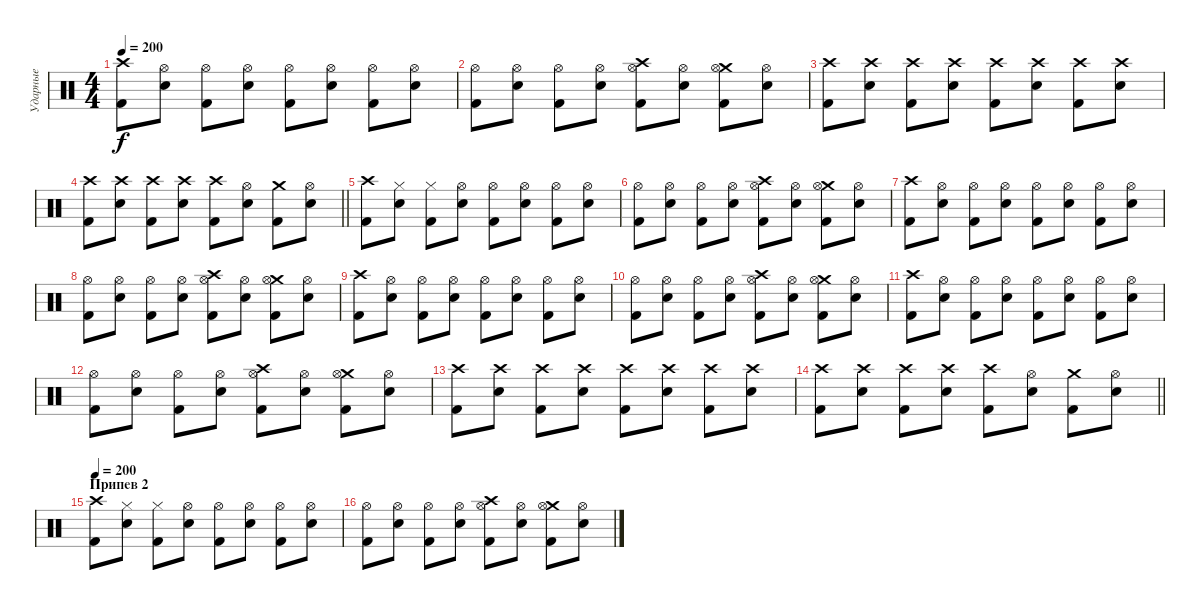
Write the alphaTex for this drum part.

\track ("Ударные" "Ударные") {instrument percussion}
\staff {score}
\articulation defaults
\ts (4 4)
\tempo 200
\clef neutral
\ks c
("Crash high (hit)" "Kick (hit) 2").8{dy f} ("Hi-Hat (open)" "Snare (hit) 2").8 ("Hi-Hat (open)" "Kick (hit) 2").8 ("Hi-Hat (open)" "Snare (hit) 2").8 ("Hi-Hat (open)" "Kick (hit) 2").8 ("Hi-Hat (open)" "Snare (hit) 2").8 ("Hi-Hat (open)" "Kick (hit) 2").8 ("Hi-Hat (open)" "Snare (hit) 2").8 |
("Hi-Hat (open)" "Kick (hit) 2").8 ("Hi-Hat (open)" "Snare (hit) 2").8 ("Hi-Hat (open)" "Kick (hit) 2").8 ("Hi-Hat (open)" "Snare (hit) 2").8 ("Crash high (hit)" "Hi-Hat (open)" "Kick (hit) 2").8 ("Hi-Hat (open)" "Snare (hit) 2").8 ("Crash medium (hit)" "Hi-Hat (open)" "Kick (hit) 2").8 ("Hi-Hat (open)" "Snare (hit) 2").8 |
("Crash high (hit)" "Kick (hit) 2").8 ("Crash high (hit)" "Snare (hit) 2").8 ("Crash high (hit)" "Kick (hit) 2").8 ("Crash high (hit)" "Snare (hit) 2").8 ("Crash high (hit)" "Kick (hit) 2").8 ("Crash high (hit)" "Snare (hit) 2").8 ("Crash high (hit)" "Kick (hit) 2").8 ("Crash high (hit)" "Snare (hit) 2").8 |
\barLineRight lightlight
("Crash high (hit)" "Kick (hit) 2").8 ("Crash high (hit)" "Snare (hit) 2").8 ("Crash high (hit)" "Kick (hit) 2").8 ("Crash high (hit)" "Snare (hit) 2").8 ("Crash high (hit)" "Kick (hit) 2").8 ("Hi-Hat (open)" "Snare (hit) 2").8 ("Crash medium (hit)" "Kick (hit) 2").8 ("Hi-Hat (open)" "Snare (hit) 2").8 |
("Crash high (hit)" "Kick (hit) 2").8 ("Hi-Hat (closed)" "Snare (hit) 2").8 ("Hi-Hat (closed)" "Kick (hit) 2").8 ("Hi-Hat (open)" "Snare (hit) 2").8 ("Hi-Hat (open)" "Kick (hit) 2").8 ("Hi-Hat (open)" "Snare (hit) 2").8 ("Hi-Hat (open)" "Kick (hit) 2").8 ("Hi-Hat (open)" "Snare (hit) 2").8 |
("Hi-Hat (open)" "Kick (hit) 2").8 ("Hi-Hat (open)" "Snare (hit) 2").8 ("Hi-Hat (open)" "Kick (hit) 2").8 ("Hi-Hat (open)" "Snare (hit) 2").8 ("Crash high (hit)" "Hi-Hat (open)" "Kick (hit) 2").8 ("Hi-Hat (open)" "Snare (hit) 2").8 ("Crash medium (hit)" "Hi-Hat (open)" "Kick (hit) 2").8 ("Hi-Hat (open)" "Snare (hit) 2").8 |
("Crash high (hit)" "Kick (hit) 2").8 ("Hi-Hat (open)" "Snare (hit) 2").8 ("Hi-Hat (open)" "Kick (hit) 2").8 ("Hi-Hat (open)" "Snare (hit) 2").8 ("Hi-Hat (open)" "Kick (hit) 2").8 ("Hi-Hat (open)" "Snare (hit) 2").8 ("Hi-Hat (open)" "Kick (hit) 2").8 ("Hi-Hat (open)" "Snare (hit) 2").8 |
("Hi-Hat (open)" "Kick (hit) 2").8 ("Hi-Hat (open)" "Snare (hit) 2").8 ("Hi-Hat (open)" "Kick (hit) 2").8 ("Hi-Hat (open)" "Snare (hit) 2").8 ("Crash high (hit)" "Hi-Hat (open)" "Kick (hit) 2").8 ("Hi-Hat (open)" "Snare (hit) 2").8 ("Crash medium (hit)" "Hi-Hat (open)" "Kick (hit) 2").8 ("Hi-Hat (open)" "Snare (hit) 2").8 |
("Crash high (hit)" "Kick (hit) 2").8 ("Hi-Hat (open)" "Snare (hit) 2").8 ("Hi-Hat (open)" "Kick (hit) 2").8 ("Hi-Hat (open)" "Snare (hit) 2").8 ("Hi-Hat (open)" "Kick (hit) 2").8 ("Hi-Hat (open)" "Snare (hit) 2").8 ("Hi-Hat (open)" "Kick (hit) 2").8 ("Hi-Hat (open)" "Snare (hit) 2").8 |
("Hi-Hat (open)" "Kick (hit) 2").8 ("Hi-Hat (open)" "Snare (hit) 2").8 ("Hi-Hat (open)" "Kick (hit) 2").8 ("Hi-Hat (open)" "Snare (hit) 2").8 ("Crash high (hit)" "Hi-Hat (open)" "Kick (hit) 2").8 ("Hi-Hat (open)" "Snare (hit) 2").8 ("Crash medium (hit)" "Hi-Hat (open)" "Kick (hit) 2").8 ("Hi-Hat (open)" "Snare (hit) 2").8 |
("Crash high (hit)" "Kick (hit) 2").8 ("Hi-Hat (open)" "Snare (hit) 2").8 ("Hi-Hat (open)" "Kick (hit) 2").8 ("Hi-Hat (open)" "Snare (hit) 2").8 ("Hi-Hat (open)" "Kick (hit) 2").8 ("Hi-Hat (open)" "Snare (hit) 2").8 ("Hi-Hat (open)" "Kick (hit) 2").8 ("Hi-Hat (open)" "Snare (hit) 2").8 |
("Hi-Hat (open)" "Kick (hit) 2").8 ("Hi-Hat (open)" "Snare (hit) 2").8 ("Hi-Hat (open)" "Kick (hit) 2").8 ("Hi-Hat (open)" "Snare (hit) 2").8 ("Crash high (hit)" "Hi-Hat (open)" "Kick (hit) 2").8 ("Hi-Hat (open)" "Snare (hit) 2").8 ("Crash medium (hit)" "Hi-Hat (open)" "Kick (hit) 2").8 ("Hi-Hat (open)" "Snare (hit) 2").8 |
("Crash high (hit)" "Kick (hit) 2").8 ("Crash high (hit)" "Snare (hit) 2").8 ("Crash high (hit)" "Kick (hit) 2").8 ("Crash high (hit)" "Snare (hit) 2").8 ("Crash high (hit)" "Kick (hit) 2").8 ("Crash high (hit)" "Snare (hit) 2").8 ("Crash high (hit)" "Kick (hit) 2").8 ("Crash high (hit)" "Snare (hit) 2").8 |
\barLineRight lightlight
("Crash high (hit)" "Kick (hit) 2").8 ("Crash high (hit)" "Snare (hit) 2").8 ("Crash high (hit)" "Kick (hit) 2").8 ("Crash high (hit)" "Snare (hit) 2").8 ("Crash high (hit)" "Kick (hit) 2").8 ("Hi-Hat (open)" "Snare (hit) 2").8 ("Crash medium (hit)" "Kick (hit) 2").8 ("Hi-Hat (open)" "Snare (hit) 2").8 |
\section ("" "Припев 2")
\tempo 200
("Crash high (hit)" "Kick (hit) 2").8 ("Hi-Hat (closed)" "Snare (hit) 2").8 ("Hi-Hat (closed)" "Kick (hit) 2").8 ("Hi-Hat (open)" "Snare (hit) 2").8 ("Hi-Hat (open)" "Kick (hit) 2").8 ("Hi-Hat (open)" "Snare (hit) 2").8 ("Hi-Hat (open)" "Kick (hit) 2").8 ("Hi-Hat (open)" "Snare (hit) 2").8 |
("Hi-Hat (open)" "Kick (hit) 2").8 ("Hi-Hat (open)" "Snare (hit) 2").8 ("Hi-Hat (open)" "Kick (hit) 2").8 ("Hi-Hat (open)" "Snare (hit) 2").8 ("Crash high (hit)" "Hi-Hat (open)" "Kick (hit) 2").8 ("Hi-Hat (open)" "Snare (hit) 2").8 ("Crash medium (hit)" "Hi-Hat (open)" "Kick (hit) 2").8 ("Hi-Hat (open)" "Snare (hit) 2").8
